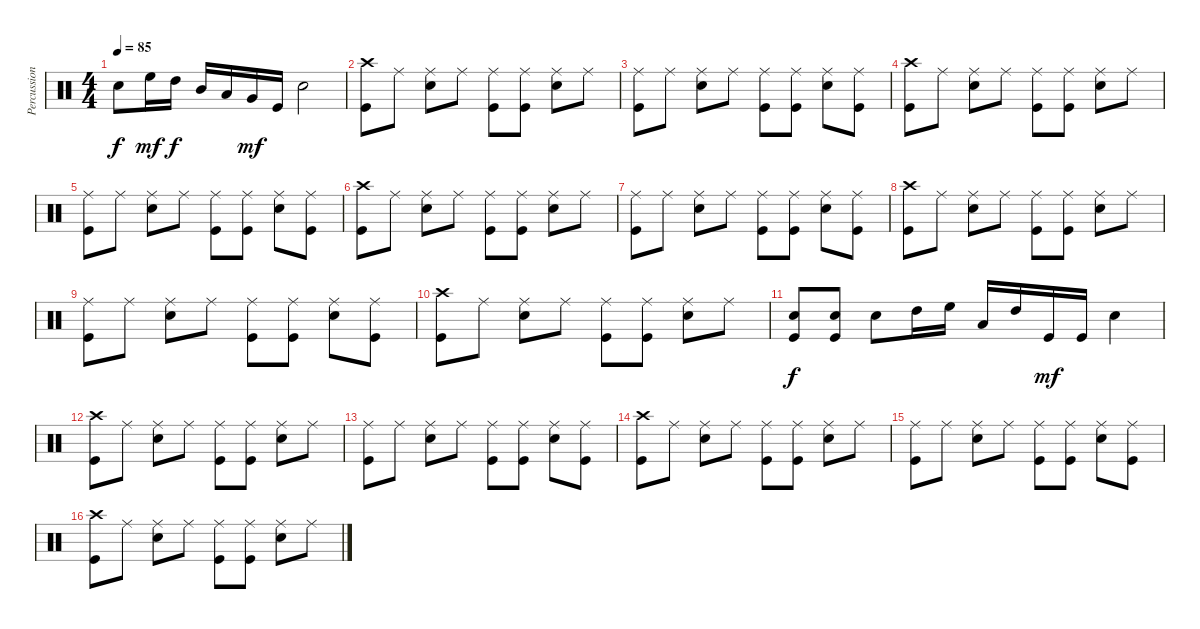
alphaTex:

\track ("Percussion" "Percussion") {instrument percussion}
\staff {score}
\articulation defaults
\ts (4 4)
\tempo 85
\clef neutral
\ks c "Snare (hit) 2".8{dy f} "High Floor Tom (hit)".16{dy mf} "High Tom (hit)".16{dy f} "Mid Tom (hit)".16 "Low Tom (hit)".16 "Very Low Tom (hit)".16{dy mf} "Kick (hit)".16 "Snare (hit) 2".2
|
("Crash high (hit)" "Kick (hit)").8 "Ride (middle)".8 ("Ride (middle)" "Snare (hit) 2").8 "Ride (middle)".8 ("Ride (middle)" "Kick (hit)").8 ("Ride (middle)" "Kick (hit)").8 ("Ride (middle)" "Snare (hit) 2").8 "Ride (middle)".8 |
("Ride (middle)" "Kick (hit)").8 "Ride (middle)".8 ("Ride (middle)" "Snare (hit) 2").8 "Ride (middle)".8 ("Ride (middle)" "Kick (hit)").8 ("Ride (middle)" "Kick (hit)").8 ("Ride (middle)" "Snare (hit) 2").8 ("Ride (middle)" "Kick (hit)").8 |
("Crash high (hit)" "Kick (hit)").8 "Ride (middle)".8 ("Ride (middle)" "Snare (hit) 2").8 "Ride (middle)".8 ("Ride (middle)" "Kick (hit)").8 ("Ride (middle)" "Kick (hit)").8 ("Ride (middle)" "Snare (hit) 2").8 "Ride (middle)".8 |
("Ride (middle)" "Kick (hit)").8 "Ride (middle)".8 ("Ride (middle)" "Snare (hit) 2").8 "Ride (middle)".8 ("Ride (middle)" "Kick (hit)").8 ("Ride (middle)" "Kick (hit)").8 ("Ride (middle)" "Snare (hit) 2").8 ("Ride (middle)" "Kick (hit)").8 |
("Crash high (hit)" "Kick (hit)").8 "Ride (middle)".8 ("Ride (middle)" "Snare (hit) 2").8 "Ride (middle)".8 ("Ride (middle)" "Kick (hit)").8 ("Ride (middle)" "Kick (hit)").8 ("Ride (middle)" "Snare (hit) 2").8 "Ride (middle)".8 |
("Ride (middle)" "Kick (hit)").8 "Ride (middle)".8 ("Ride (middle)" "Snare (hit) 2").8 "Ride (middle)".8 ("Ride (middle)" "Kick (hit)").8 ("Ride (middle)" "Kick (hit)").8 ("Ride (middle)" "Snare (hit) 2").8 ("Ride (middle)" "Kick (hit)").8 |
("Crash high (hit)" "Kick (hit)").8 "Ride (middle)".8 ("Ride (middle)" "Snare (hit) 2").8 "Ride (middle)".8 ("Ride (middle)" "Kick (hit)").8 ("Ride (middle)" "Kick (hit)").8 ("Ride (middle)" "Snare (hit) 2").8 "Ride (middle)".8 |
("Ride (middle)" "Kick (hit)").8 "Ride (middle)".8 ("Ride (middle)" "Snare (hit) 2").8 "Ride (middle)".8 ("Ride (middle)" "Kick (hit)").8 ("Ride (middle)" "Kick (hit)").8 ("Ride (middle)" "Snare (hit) 2").8 ("Ride (middle)" "Kick (hit)").8 |
("Crash high (hit)" "Kick (hit)").8 "Ride (middle)".8 ("Ride (middle)" "Snare (hit) 2").8 "Ride (middle)".8 ("Ride (middle)" "Kick (hit)").8 ("Ride (middle)" "Kick (hit)").8 ("Ride (middle)" "Snare (hit) 2").8 "Ride (middle)".8 |
("Snare (hit) 2" "Kick (hit)").8{dy f} ("Snare (hit) 2" "Kick (hit)").8 "Snare (hit) 2".8 "High Tom (hit)".16 "High Floor Tom (hit)".16 "Low Tom (hit)".16 "High Tom (hit)".16 "Kick (hit)".16{dy mf} "Kick (hit)".16 "Snare (hit) 2".4 |
("Crash high (hit)" "Kick (hit)").8 "Ride (middle)".8 ("Ride (middle)" "Snare (hit) 2").8 "Ride (middle)".8 ("Ride (middle)" "Kick (hit)").8 ("Ride (middle)" "Kick (hit)").8 ("Ride (middle)" "Snare (hit) 2").8 "Ride (middle)".8 |
("Ride (middle)" "Kick (hit)").8 "Ride (middle)".8 ("Ride (middle)" "Snare (hit) 2").8 "Ride (middle)".8 ("Ride (middle)" "Kick (hit)").8 ("Ride (middle)" "Kick (hit)").8 ("Ride (middle)" "Snare (hit) 2").8 ("Ride (middle)" "Kick (hit)").8 |
("Crash high (hit)" "Kick (hit)").8 "Ride (middle)".8 ("Ride (middle)" "Snare (hit) 2").8 "Ride (middle)".8 ("Ride (middle)" "Kick (hit)").8 ("Ride (middle)" "Kick (hit)").8 ("Ride (middle)" "Snare (hit) 2").8 "Ride (middle)".8 |
("Ride (middle)" "Kick (hit)").8 "Ride (middle)".8 ("Ride (middle)" "Snare (hit) 2").8 "Ride (middle)".8 ("Ride (middle)" "Kick (hit)").8 ("Ride (middle)" "Kick (hit)").8 ("Ride (middle)" "Snare (hit) 2").8 ("Ride (middle)" "Kick (hit)").8 |
("Crash high (hit)" "Kick (hit)").8 "Ride (middle)".8 ("Ride (middle)" "Snare (hit) 2").8 "Ride (middle)".8 ("Ride (middle)" "Kick (hit)").8 ("Ride (middle)" "Kick (hit)").8 ("Ride (middle)" "Snare (hit) 2").8 "Ride (middle)".8
